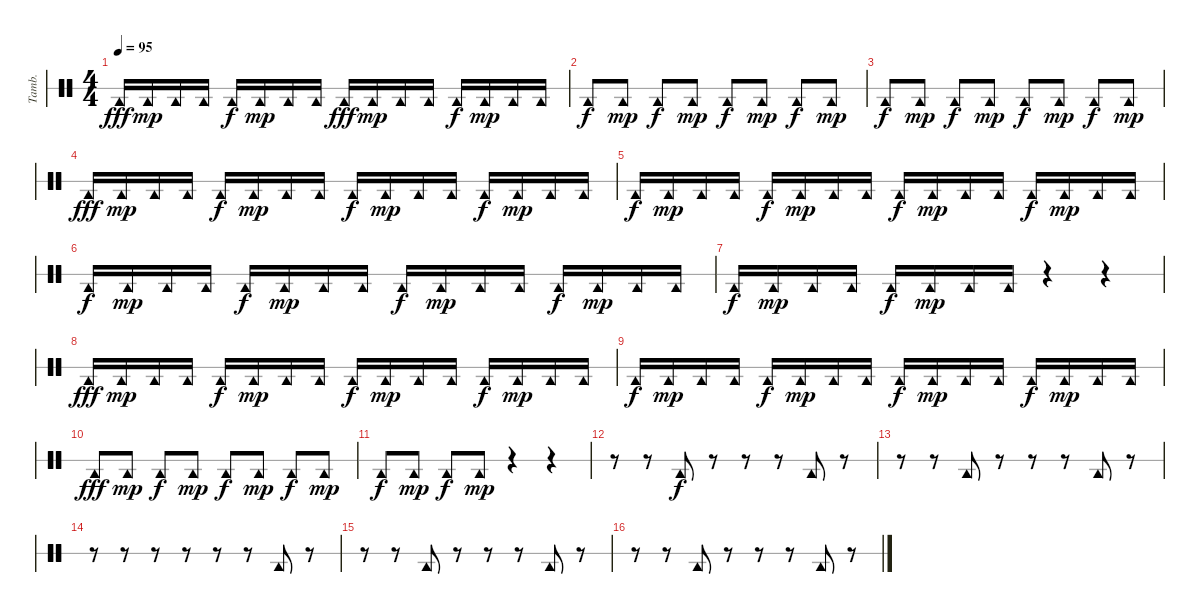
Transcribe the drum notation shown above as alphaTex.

\bracketExtendMode groupsimilarinstruments
\otherSystemsTrackNameOrientation horizontal
\track ("Tambourine" "Tamb.") {instrument percussion}
\staff {score 1}
\articulation defaults
\ts (4 4)
\tempo 95
\clef neutral
\ks c "Tambourine (hit)".16{dy fff} "Tambourine (hit)".16{dy mp} "Tambourine (hit)".16 "Tambourine (hit)".16 "Tambourine (hit)".16{dy f} "Tambourine (hit)".16{dy mp} "Tambourine (hit)".16 "Tambourine (hit)".16 "Tambourine (hit)".16{dy fff} "Tambourine (hit)".16{dy mp} "Tambourine (hit)".16 "Tambourine (hit)".16 "Tambourine (hit)".16{dy f} "Tambourine (hit)".16{dy mp} "Tambourine (hit)".16 "Tambourine (hit)".16
|
"Tambourine (hit)".8{dy f} "Tambourine (hit)".8{dy mp} "Tambourine (hit)".8{dy f} "Tambourine (hit)".8{dy mp} "Tambourine (hit)".8{dy f} "Tambourine (hit)".8{dy mp} "Tambourine (hit)".8{dy f} "Tambourine (hit)".8{dy mp} |
"Tambourine (hit)".8{dy f} "Tambourine (hit)".8{dy mp} "Tambourine (hit)".8{dy f} "Tambourine (hit)".8{dy mp} "Tambourine (hit)".8{dy f} "Tambourine (hit)".8{dy mp} "Tambourine (hit)".8{dy f} "Tambourine (hit)".8{dy mp} |
"Tambourine (hit)".16{dy fff} "Tambourine (hit)".16{dy mp} "Tambourine (hit)".16 "Tambourine (hit)".16 "Tambourine (hit)".16{dy f} "Tambourine (hit)".16{dy mp} "Tambourine (hit)".16 "Tambourine (hit)".16 "Tambourine (hit)".16{dy f} "Tambourine (hit)".16{dy mp} "Tambourine (hit)".16 "Tambourine (hit)".16 "Tambourine (hit)".16{dy f} "Tambourine (hit)".16{dy mp} "Tambourine (hit)".16 "Tambourine (hit)".16 |
"Tambourine (hit)".16{dy f} "Tambourine (hit)".16{dy mp} "Tambourine (hit)".16 "Tambourine (hit)".16 "Tambourine (hit)".16{dy f} "Tambourine (hit)".16{dy mp} "Tambourine (hit)".16 "Tambourine (hit)".16 "Tambourine (hit)".16{dy f} "Tambourine (hit)".16{dy mp} "Tambourine (hit)".16 "Tambourine (hit)".16 "Tambourine (hit)".16{dy f} "Tambourine (hit)".16{dy mp} "Tambourine (hit)".16 "Tambourine (hit)".16 |
"Tambourine (hit)".16{dy f} "Tambourine (hit)".16{dy mp} "Tambourine (hit)".16 "Tambourine (hit)".16 "Tambourine (hit)".16{dy f} "Tambourine (hit)".16{dy mp} "Tambourine (hit)".16 "Tambourine (hit)".16 "Tambourine (hit)".16{dy f} "Tambourine (hit)".16{dy mp} "Tambourine (hit)".16 "Tambourine (hit)".16 "Tambourine (hit)".16{dy f} "Tambourine (hit)".16{dy mp} "Tambourine (hit)".16 "Tambourine (hit)".16 |
"Tambourine (hit)".16{dy f} "Tambourine (hit)".16{dy mp} "Tambourine (hit)".16 "Tambourine (hit)".16 "Tambourine (hit)".16{dy f} "Tambourine (hit)".16{dy mp} "Tambourine (hit)".16 "Tambourine (hit)".16 r.4 r.4 |
"Tambourine (hit)".16{dy fff} "Tambourine (hit)".16{dy mp} "Tambourine (hit)".16 "Tambourine (hit)".16 "Tambourine (hit)".16{dy f} "Tambourine (hit)".16{dy mp} "Tambourine (hit)".16 "Tambourine (hit)".16 "Tambourine (hit)".16{dy f} "Tambourine (hit)".16{dy mp} "Tambourine (hit)".16 "Tambourine (hit)".16 "Tambourine (hit)".16{dy f} "Tambourine (hit)".16{dy mp} "Tambourine (hit)".16 "Tambourine (hit)".16 |
"Tambourine (hit)".16{dy f} "Tambourine (hit)".16{dy mp} "Tambourine (hit)".16 "Tambourine (hit)".16 "Tambourine (hit)".16{dy f} "Tambourine (hit)".16{dy mp} "Tambourine (hit)".16 "Tambourine (hit)".16 "Tambourine (hit)".16{dy f} "Tambourine (hit)".16{dy mp} "Tambourine (hit)".16 "Tambourine (hit)".16 "Tambourine (hit)".16{dy f} "Tambourine (hit)".16{dy mp} "Tambourine (hit)".16 "Tambourine (hit)".16 |
"Tambourine (hit)".8{dy fff} "Tambourine (hit)".8{dy mp} "Tambourine (hit)".8{dy f} "Tambourine (hit)".8{dy mp} "Tambourine (hit)".8{dy f} "Tambourine (hit)".8{dy mp} "Tambourine (hit)".8{dy f} "Tambourine (hit)".8{dy mp} |
"Tambourine (hit)".8{dy f} "Tambourine (hit)".8{dy mp} "Tambourine (hit)".8{dy f} "Tambourine (hit)".8{dy mp} r.4 r.4 |
r.8 r.8 "Tambourine (hit)".8{dy f} r.8 r.8 r.8 "Tambourine (hit)".8 r.8 |
r.8 r.8 "Tambourine (hit)".8 r.8 r.8 r.8 "Tambourine (hit)".8 r.8 |
r.8 r.8 r.8 r.8 r.8 r.8 "Tambourine (hit)".8 r.8 |
r.8 r.8 "Tambourine (hit)".8 r.8 r.8 r.8 "Tambourine (hit)".8 r.8 |
r.8 r.8 "Tambourine (hit)".8 r.8 r.8 r.8 "Tambourine (hit)".8 r.8
